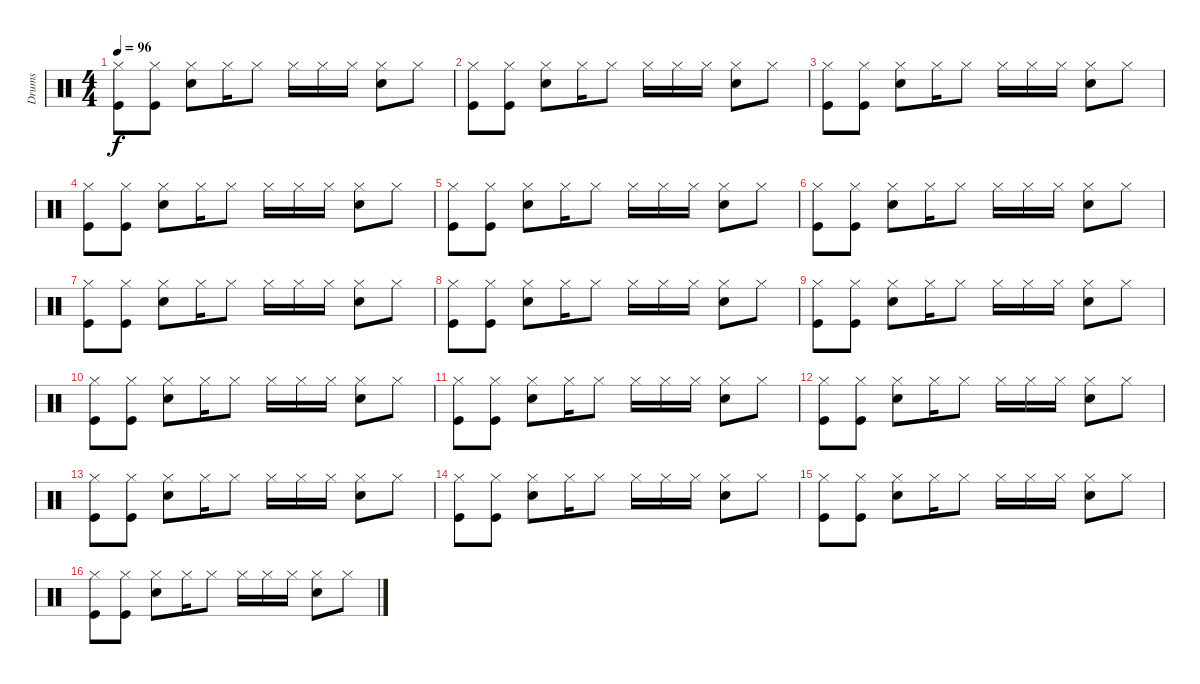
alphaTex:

\track ("Drums" "Drums") {instrument percussion}
\staff {score}
\articulation defaults
\ts (4 4)
\tempo 96
\clef neutral
\ks c
("Kick (hit)" "Hi-Hat (closed)").8{dy f} ("Kick (hit)" "Hi-Hat (closed)").8 ("Electric Snare (hit)" "Hi-Hat (closed)").8 "Hi-Hat (closed)".16 "Hi-Hat (closed)".8 "Hi-Hat (closed)".16 "Hi-Hat (closed)".16 "Hi-Hat (closed)".16 ("Electric Snare (hit)" "Hi-Hat (closed)").8 "Hi-Hat (closed)".8 |
("Kick (hit)" "Hi-Hat (closed)").8 ("Kick (hit)" "Hi-Hat (closed)").8 ("Electric Snare (hit)" "Hi-Hat (closed)").8 "Hi-Hat (closed)".16 "Hi-Hat (closed)".8 "Hi-Hat (closed)".16 "Hi-Hat (closed)".16 "Hi-Hat (closed)".16 ("Electric Snare (hit)" "Hi-Hat (closed)").8 "Hi-Hat (closed)".8 |
("Kick (hit)" "Hi-Hat (closed)").8 ("Kick (hit)" "Hi-Hat (closed)").8 ("Electric Snare (hit)" "Hi-Hat (closed)").8 "Hi-Hat (closed)".16 "Hi-Hat (closed)".8 "Hi-Hat (closed)".16 "Hi-Hat (closed)".16 "Hi-Hat (closed)".16 ("Electric Snare (hit)" "Hi-Hat (closed)").8 "Hi-Hat (closed)".8 |
("Kick (hit)" "Hi-Hat (closed)").8 ("Kick (hit)" "Hi-Hat (closed)").8 ("Electric Snare (hit)" "Hi-Hat (closed)").8 "Hi-Hat (closed)".16 "Hi-Hat (closed)".8 "Hi-Hat (closed)".16 "Hi-Hat (closed)".16 "Hi-Hat (closed)".16 ("Electric Snare (hit)" "Hi-Hat (closed)").8 "Hi-Hat (closed)".8 |
("Kick (hit)" "Hi-Hat (closed)").8 ("Kick (hit)" "Hi-Hat (closed)").8 ("Electric Snare (hit)" "Hi-Hat (closed)").8 "Hi-Hat (closed)".16 "Hi-Hat (closed)".8 "Hi-Hat (closed)".16 "Hi-Hat (closed)".16 "Hi-Hat (closed)".16 ("Electric Snare (hit)" "Hi-Hat (closed)").8 "Hi-Hat (closed)".8 |
("Kick (hit)" "Hi-Hat (closed)").8 ("Kick (hit)" "Hi-Hat (closed)").8 ("Electric Snare (hit)" "Hi-Hat (closed)").8 "Hi-Hat (closed)".16 "Hi-Hat (closed)".8 "Hi-Hat (closed)".16 "Hi-Hat (closed)".16 "Hi-Hat (closed)".16 ("Electric Snare (hit)" "Hi-Hat (closed)").8 "Hi-Hat (closed)".8 |
("Kick (hit)" "Hi-Hat (closed)").8 ("Kick (hit)" "Hi-Hat (closed)").8 ("Electric Snare (hit)" "Hi-Hat (closed)").8 "Hi-Hat (closed)".16 "Hi-Hat (closed)".8 "Hi-Hat (closed)".16 "Hi-Hat (closed)".16 "Hi-Hat (closed)".16 ("Electric Snare (hit)" "Hi-Hat (closed)").8 "Hi-Hat (closed)".8 |
("Kick (hit)" "Hi-Hat (closed)").8 ("Kick (hit)" "Hi-Hat (closed)").8 ("Electric Snare (hit)" "Hi-Hat (closed)").8 "Hi-Hat (closed)".16 "Hi-Hat (closed)".8 "Hi-Hat (closed)".16 "Hi-Hat (closed)".16 "Hi-Hat (closed)".16 ("Electric Snare (hit)" "Hi-Hat (closed)").8 "Hi-Hat (closed)".8 |
("Kick (hit)" "Hi-Hat (closed)").8 ("Kick (hit)" "Hi-Hat (closed)").8 ("Electric Snare (hit)" "Hi-Hat (closed)").8 "Hi-Hat (closed)".16 "Hi-Hat (closed)".8 "Hi-Hat (closed)".16 "Hi-Hat (closed)".16 "Hi-Hat (closed)".16 ("Electric Snare (hit)" "Hi-Hat (closed)").8 "Hi-Hat (closed)".8 |
("Kick (hit)" "Hi-Hat (closed)").8 ("Kick (hit)" "Hi-Hat (closed)").8 ("Electric Snare (hit)" "Hi-Hat (closed)").8 "Hi-Hat (closed)".16 "Hi-Hat (closed)".8 "Hi-Hat (closed)".16 "Hi-Hat (closed)".16 "Hi-Hat (closed)".16 ("Electric Snare (hit)" "Hi-Hat (closed)").8 "Hi-Hat (closed)".8 |
("Kick (hit)" "Hi-Hat (closed)").8 ("Kick (hit)" "Hi-Hat (closed)").8 ("Electric Snare (hit)" "Hi-Hat (closed)").8 "Hi-Hat (closed)".16 "Hi-Hat (closed)".8 "Hi-Hat (closed)".16 "Hi-Hat (closed)".16 "Hi-Hat (closed)".16 ("Electric Snare (hit)" "Hi-Hat (closed)").8 "Hi-Hat (closed)".8 |
("Kick (hit)" "Hi-Hat (closed)").8 ("Kick (hit)" "Hi-Hat (closed)").8 ("Electric Snare (hit)" "Hi-Hat (closed)").8 "Hi-Hat (closed)".16 "Hi-Hat (closed)".8 "Hi-Hat (closed)".16 "Hi-Hat (closed)".16 "Hi-Hat (closed)".16 ("Electric Snare (hit)" "Hi-Hat (closed)").8 "Hi-Hat (closed)".8 |
("Kick (hit)" "Hi-Hat (closed)").8 ("Kick (hit)" "Hi-Hat (closed)").8 ("Electric Snare (hit)" "Hi-Hat (closed)").8 "Hi-Hat (closed)".16 "Hi-Hat (closed)".8 "Hi-Hat (closed)".16 "Hi-Hat (closed)".16 "Hi-Hat (closed)".16 ("Electric Snare (hit)" "Hi-Hat (closed)").8 "Hi-Hat (closed)".8 |
("Kick (hit)" "Hi-Hat (closed)").8 ("Kick (hit)" "Hi-Hat (closed)").8 ("Electric Snare (hit)" "Hi-Hat (closed)").8 "Hi-Hat (closed)".16 "Hi-Hat (closed)".8 "Hi-Hat (closed)".16 "Hi-Hat (closed)".16 "Hi-Hat (closed)".16 ("Electric Snare (hit)" "Hi-Hat (closed)").8 "Hi-Hat (closed)".8 |
("Kick (hit)" "Hi-Hat (closed)").8 ("Kick (hit)" "Hi-Hat (closed)").8 ("Electric Snare (hit)" "Hi-Hat (closed)").8 "Hi-Hat (closed)".16 "Hi-Hat (closed)".8 "Hi-Hat (closed)".16 "Hi-Hat (closed)".16 "Hi-Hat (closed)".16 ("Electric Snare (hit)" "Hi-Hat (closed)").8 "Hi-Hat (closed)".8 |
("Kick (hit)" "Hi-Hat (closed)").8 ("Kick (hit)" "Hi-Hat (closed)").8 ("Electric Snare (hit)" "Hi-Hat (closed)").8 "Hi-Hat (closed)".16 "Hi-Hat (closed)".8 "Hi-Hat (closed)".16 "Hi-Hat (closed)".16 "Hi-Hat (closed)".16 ("Electric Snare (hit)" "Hi-Hat (closed)").8 "Hi-Hat (closed)".8
